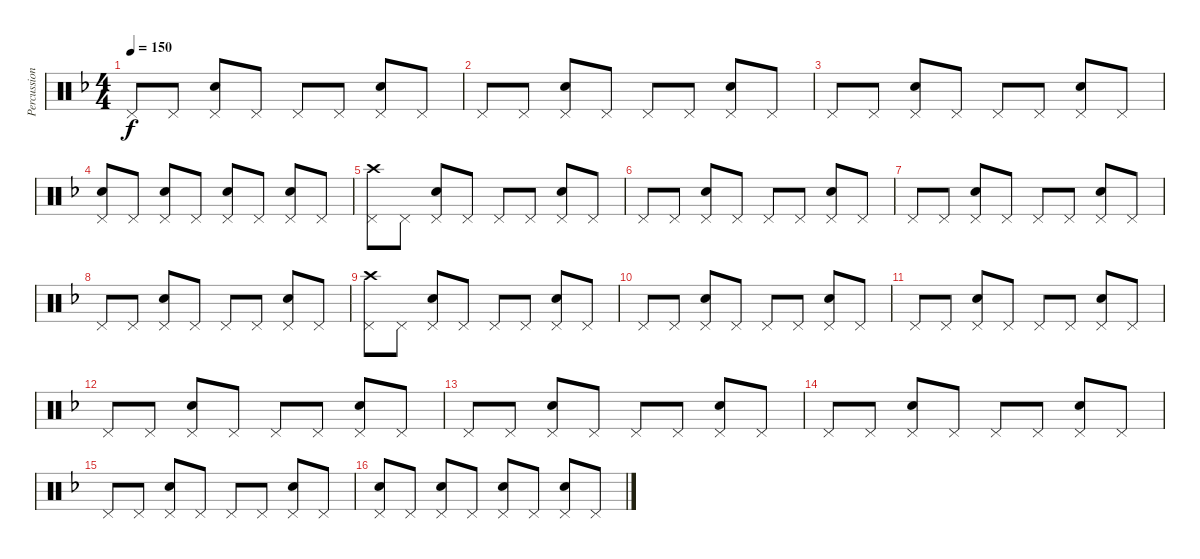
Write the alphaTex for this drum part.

\track ("Percussions" "Percussion") {instrument percussion}
\staff {score}
\articulation defaults
\ts (4 4)
\tempo 150
\clef neutral
\ks f "Pedal Hi-Hat (hit)".8{dy f} "Pedal Hi-Hat (hit)".8
("Pedal Hi-Hat (hit)" "Snare (hit) 2").8 "Pedal Hi-Hat (hit)".8 "Pedal Hi-Hat (hit)".8 "Pedal Hi-Hat (hit)".8 ("Pedal Hi-Hat (hit)" "Snare (hit) 2").8 "Pedal Hi-Hat (hit)".8 |
"Pedal Hi-Hat (hit)".8 "Pedal Hi-Hat (hit)".8 ("Pedal Hi-Hat (hit)" "Snare (hit) 2").8 "Pedal Hi-Hat (hit)".8 "Pedal Hi-Hat (hit)".8 "Pedal Hi-Hat (hit)".8 ("Pedal Hi-Hat (hit)" "Snare (hit) 2").8 "Pedal Hi-Hat (hit)".8 |
"Pedal Hi-Hat (hit)".8 "Pedal Hi-Hat (hit)".8 ("Pedal Hi-Hat (hit)" "Snare (hit) 2").8 "Pedal Hi-Hat (hit)".8 "Pedal Hi-Hat (hit)".8 "Pedal Hi-Hat (hit)".8 ("Pedal Hi-Hat (hit)" "Snare (hit) 2").8 "Pedal Hi-Hat (hit)".8 |
("Pedal Hi-Hat (hit)" "Snare (hit) 2").8 "Pedal Hi-Hat (hit)".8 ("Pedal Hi-Hat (hit)" "Snare (hit) 2").8 "Pedal Hi-Hat (hit)".8 ("Pedal Hi-Hat (hit)" "Snare (hit) 2").8 "Pedal Hi-Hat (hit)".8 ("Pedal Hi-Hat (hit)" "Snare (hit) 2").8 "Pedal Hi-Hat (hit)".8 |
("Crash high (hit)" "Pedal Hi-Hat (hit)").8 "Pedal Hi-Hat (hit)".8 ("Pedal Hi-Hat (hit)" "Snare (hit) 2").8 "Pedal Hi-Hat (hit)".8 "Pedal Hi-Hat (hit)".8 "Pedal Hi-Hat (hit)".8 ("Pedal Hi-Hat (hit)" "Snare (hit) 2").8 "Pedal Hi-Hat (hit)".8 |
"Pedal Hi-Hat (hit)".8 "Pedal Hi-Hat (hit)".8 ("Pedal Hi-Hat (hit)" "Snare (hit) 2").8 "Pedal Hi-Hat (hit)".8 "Pedal Hi-Hat (hit)".8 "Pedal Hi-Hat (hit)".8 ("Pedal Hi-Hat (hit)" "Snare (hit) 2").8 "Pedal Hi-Hat (hit)".8 |
"Pedal Hi-Hat (hit)".8 "Pedal Hi-Hat (hit)".8 ("Pedal Hi-Hat (hit)" "Snare (hit) 2").8 "Pedal Hi-Hat (hit)".8 "Pedal Hi-Hat (hit)".8 "Pedal Hi-Hat (hit)".8 ("Pedal Hi-Hat (hit)" "Snare (hit) 2").8 "Pedal Hi-Hat (hit)".8 |
"Pedal Hi-Hat (hit)".8 "Pedal Hi-Hat (hit)".8 ("Pedal Hi-Hat (hit)" "Snare (hit) 2").8 "Pedal Hi-Hat (hit)".8 "Pedal Hi-Hat (hit)".8 "Pedal Hi-Hat (hit)".8 ("Pedal Hi-Hat (hit)" "Snare (hit) 2").8 "Pedal Hi-Hat (hit)".8 |
("Crash high (hit)" "Pedal Hi-Hat (hit)").8 "Pedal Hi-Hat (hit)".8 ("Pedal Hi-Hat (hit)" "Snare (hit) 2").8 "Pedal Hi-Hat (hit)".8 "Pedal Hi-Hat (hit)".8 "Pedal Hi-Hat (hit)".8 ("Pedal Hi-Hat (hit)" "Snare (hit) 2").8 "Pedal Hi-Hat (hit)".8 |
"Pedal Hi-Hat (hit)".8 "Pedal Hi-Hat (hit)".8 ("Pedal Hi-Hat (hit)" "Snare (hit) 2").8 "Pedal Hi-Hat (hit)".8 "Pedal Hi-Hat (hit)".8 "Pedal Hi-Hat (hit)".8 ("Pedal Hi-Hat (hit)" "Snare (hit) 2").8 "Pedal Hi-Hat (hit)".8 |
"Pedal Hi-Hat (hit)".8 "Pedal Hi-Hat (hit)".8 ("Pedal Hi-Hat (hit)" "Snare (hit) 2").8 "Pedal Hi-Hat (hit)".8 "Pedal Hi-Hat (hit)".8 "Pedal Hi-Hat (hit)".8 ("Pedal Hi-Hat (hit)" "Snare (hit) 2").8 "Pedal Hi-Hat (hit)".8 |
"Pedal Hi-Hat (hit)".8 "Pedal Hi-Hat (hit)".8 ("Pedal Hi-Hat (hit)" "Snare (hit) 2").8 "Pedal Hi-Hat (hit)".8 "Pedal Hi-Hat (hit)".8 "Pedal Hi-Hat (hit)".8 ("Pedal Hi-Hat (hit)" "Snare (hit) 2").8 "Pedal Hi-Hat (hit)".8 |
"Pedal Hi-Hat (hit)".8 "Pedal Hi-Hat (hit)".8 ("Pedal Hi-Hat (hit)" "Snare (hit) 2").8 "Pedal Hi-Hat (hit)".8 "Pedal Hi-Hat (hit)".8 "Pedal Hi-Hat (hit)".8 ("Pedal Hi-Hat (hit)" "Snare (hit) 2").8 "Pedal Hi-Hat (hit)".8 |
"Pedal Hi-Hat (hit)".8 "Pedal Hi-Hat (hit)".8 ("Pedal Hi-Hat (hit)" "Snare (hit) 2").8 "Pedal Hi-Hat (hit)".8 "Pedal Hi-Hat (hit)".8 "Pedal Hi-Hat (hit)".8 ("Pedal Hi-Hat (hit)" "Snare (hit) 2").8 "Pedal Hi-Hat (hit)".8 |
"Pedal Hi-Hat (hit)".8 "Pedal Hi-Hat (hit)".8 ("Pedal Hi-Hat (hit)" "Snare (hit) 2").8 "Pedal Hi-Hat (hit)".8 "Pedal Hi-Hat (hit)".8 "Pedal Hi-Hat (hit)".8 ("Pedal Hi-Hat (hit)" "Snare (hit) 2").8 "Pedal Hi-Hat (hit)".8 |
("Pedal Hi-Hat (hit)" "Snare (hit) 2").8 "Pedal Hi-Hat (hit)".8 ("Pedal Hi-Hat (hit)" "Snare (hit) 2").8 "Pedal Hi-Hat (hit)".8 ("Pedal Hi-Hat (hit)" "Snare (hit) 2").8 "Pedal Hi-Hat (hit)".8 ("Pedal Hi-Hat (hit)" "Snare (hit) 2").8 "Pedal Hi-Hat (hit)".8
